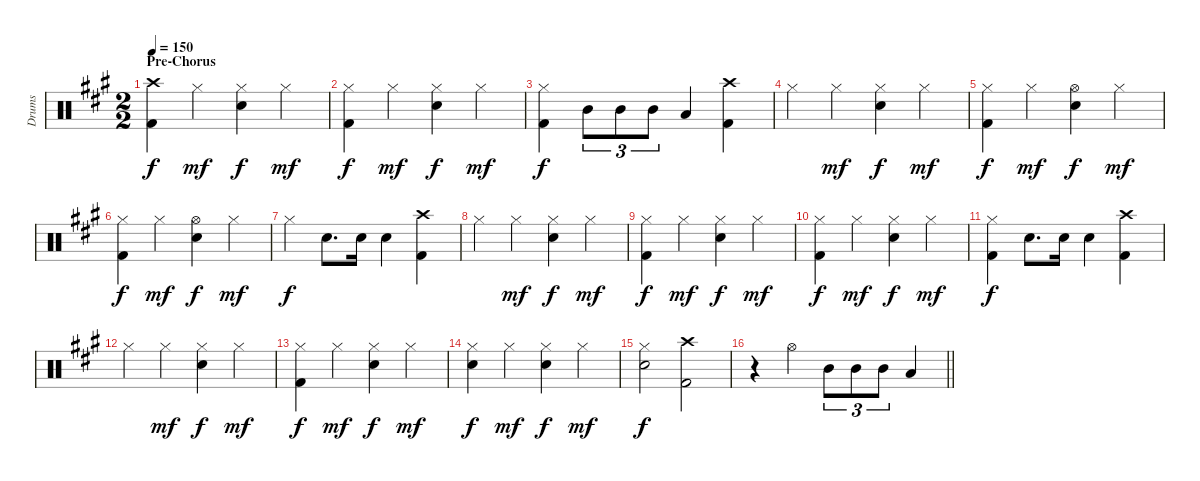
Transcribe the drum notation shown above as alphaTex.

\track ("Drums" "Drums") {instrument percussion}
\staff {score}
\articulation defaults
\ts (2 2)
\section ("" "Pre-Chorus")
\tempo 150
\clef neutral
\ks a
("Crash high (hit)" "Kick (hit) 2").4{dy f} "Hi-Hat (closed)".4{dy mf} ("Hi-Hat (closed)" "Electric Snare (hit)").4{dy f} "Hi-Hat (closed)".4{dy mf} |
("Hi-Hat (closed)" "Kick (hit) 2").4{dy f} "Hi-Hat (closed)".4{dy mf} ("Hi-Hat (closed)" "Electric Snare (hit)").4{dy f} "Hi-Hat (closed)".4{dy mf} |
("Hi-Hat (closed)" "Kick (hit) 2").4{dy f} "Mid Tom (hit)".8{tu (3 2)} "Mid Tom (hit)".8{tu (3 2)} "Mid Tom (hit)".8{tu (3 2)} "Low Tom (hit)".4 ("Crash high (hit)" "Kick (hit) 2").4 |
"Hi-Hat (closed)".4 "Hi-Hat (closed)".4{dy mf} ("Hi-Hat (closed)" "Electric Snare (hit)").4{dy f} "Hi-Hat (closed)".4{dy mf} |
("Hi-Hat (closed)" "Kick (hit) 2").4{dy f} "Hi-Hat (closed)".4{dy mf} ("Hi-Hat (open)" "Electric Snare (hit)").4{dy f} "Hi-Hat (closed)".4{dy mf} |
("Hi-Hat (closed)" "Kick (hit) 2").4{dy f} "Hi-Hat (closed)".4{dy mf} ("Hi-Hat (open)" "Electric Snare (hit)").4{dy f} "Hi-Hat (closed)".4{dy mf} |
"Hi-Hat (closed)".4{dy f} "Electric Snare (hit)".8{d} "Electric Snare (hit)".16 "Electric Snare (hit)".4 ("Crash high (hit)" "Kick (hit) 2").4 |
"Hi-Hat (closed)".4 "Hi-Hat (closed)".4{dy mf} ("Hi-Hat (closed)" "Electric Snare (hit)").4{dy f} "Hi-Hat (closed)".4{dy mf} |
("Hi-Hat (closed)" "Kick (hit) 2").4{dy f} "Hi-Hat (closed)".4{dy mf} ("Hi-Hat (closed)" "Electric Snare (hit)").4{dy f} "Hi-Hat (closed)".4{dy mf} |
("Hi-Hat (closed)" "Kick (hit) 2").4{dy f} "Hi-Hat (closed)".4{dy mf} ("Hi-Hat (closed)" "Electric Snare (hit)").4{dy f} "Hi-Hat (closed)".4{dy mf} |
("Hi-Hat (closed)" "Kick (hit) 2").4{dy f} "Electric Snare (hit)".8{d} "Electric Snare (hit)".16 "Electric Snare (hit)".4 ("Crash high (hit)" "Kick (hit) 2").4 |
"Hi-Hat (closed)".4 "Hi-Hat (closed)".4{dy mf} ("Hi-Hat (closed)" "Electric Snare (hit)").4{dy f} "Hi-Hat (closed)".4{dy mf} |
("Hi-Hat (closed)" "Kick (hit) 2").4{dy f} "Hi-Hat (closed)".4{dy mf} ("Hi-Hat (closed)" "Electric Snare (hit)").4{dy f} "Hi-Hat (closed)".4{dy mf} |
("Hi-Hat (closed)" "Electric Snare (hit)").4{dy f} "Hi-Hat (closed)".4{dy mf} ("Hi-Hat (closed)" "Electric Snare (hit)").4{dy f} "Hi-Hat (closed)".4{dy mf} |
("Hi-Hat (closed)" "Electric Snare (hit)").2{dy f} ("Crash high (hit)" "Kick (hit) 2").2 |
\barLineRight lightlight
r.4 "Hi-Hat (open)".4 "Mid Tom (hit)".8{tu (3 2)} "Mid Tom (hit)".8{tu (3 2)} "Mid Tom (hit)".8{tu (3 2)} "Low Tom (hit)".4
